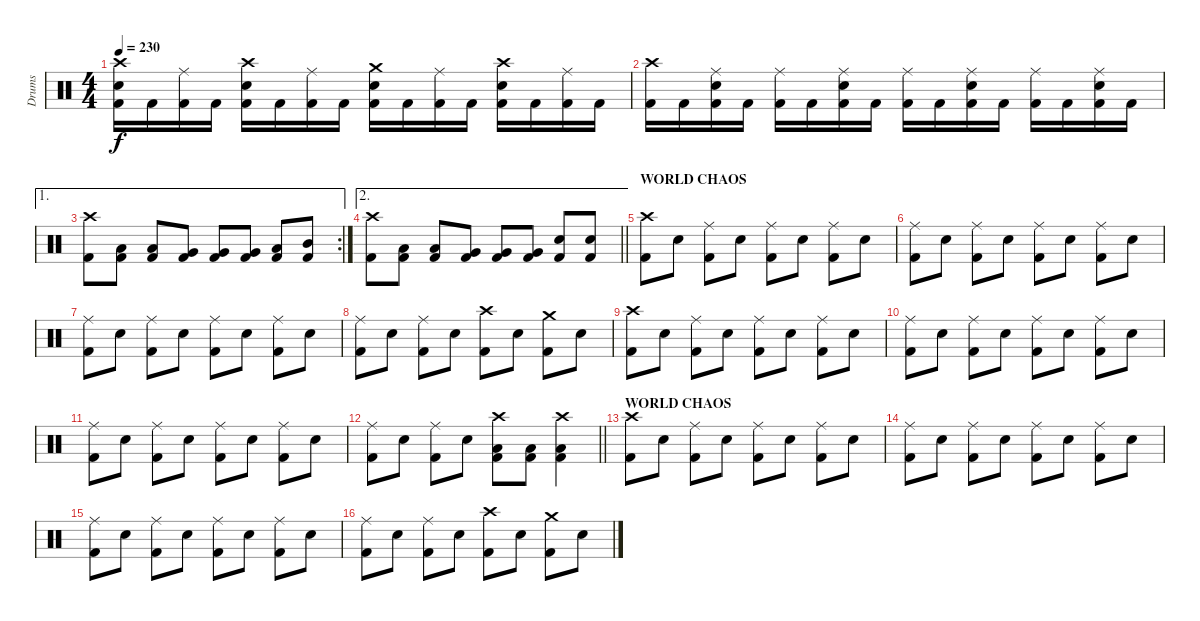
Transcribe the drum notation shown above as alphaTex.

\track ("Drums" "Drums") {instrument percussion}
\staff {score}
\articulation defaults
\ts (4 4)
\tempo 230
\clef neutral
\ks c
("Crash high (hit)" "Electric Snare (hit)" "Kick (hit) 2").16{dy f} "Kick (hit) 2".16 ("Ride (middle)" "Kick (hit) 2").16 "Kick (hit) 2".16 ("Crash high (hit)" "Electric Snare (hit)" "Kick (hit) 2").16 "Kick (hit) 2".16 ("Ride (middle)" "Kick (hit) 2").16 "Kick (hit) 2".16 ("Crash medium (hit)" "Electric Snare (hit)" "Kick (hit) 2").16 "Kick (hit) 2".16 ("Ride (middle)" "Kick (hit) 2").16 "Kick (hit) 2".16 ("Crash high (hit)" "Electric Snare (hit)" "Kick (hit) 2").16 "Kick (hit) 2".16 ("Ride (middle)" "Kick (hit) 2").16 "Kick (hit) 2".16 |
("Crash high (hit)" "Kick (hit) 2").16 "Kick (hit) 2".16 ("Ride (middle)" "Electric Snare (hit)" "Kick (hit) 2").16 "Kick (hit) 2".16 ("Ride (middle)" "Kick (hit) 2").16 "Kick (hit) 2".16 ("Ride (middle)" "Electric Snare (hit)" "Kick (hit) 2").16 "Kick (hit) 2".16 ("Ride (middle)" "Kick (hit) 2").16 "Kick (hit) 2".16 ("Ride (middle)" "Electric Snare (hit)" "Kick (hit) 2").16 "Kick (hit) 2".16 ("Ride (middle)" "Kick (hit) 2").16 "Kick (hit) 2".16 ("Ride (middle)" "Electric Snare (hit)" "Kick (hit) 2").16 "Kick (hit) 2".16 |
\ae 1
\rc 2
("Crash high (hit)" "Kick (hit) 2").8 ("Low Tom (hit)" "Kick (hit) 2").8 ("Low Tom (hit)" "Kick (hit) 2").8 ("Very Low Tom (hit)" "Kick (hit) 2").8 ("Very Low Tom (hit)" "Kick (hit) 2").8 ("Very Low Tom (hit)" "Kick (hit) 2").8 ("Low Tom (hit)" "Kick (hit) 2").8 ("Mid Tom (hit)" "Kick (hit) 2").8 |
\ae 2
\barLineRight lightlight
("Crash high (hit)" "Kick (hit) 2").8 ("Low Tom (hit)" "Kick (hit) 2").8 ("Low Tom (hit)" "Kick (hit) 2").8 ("Very Low Tom (hit)" "Kick (hit) 2").8 ("Very Low Tom (hit)" "Kick (hit) 2").8 ("Very Low Tom (hit)" "Kick (hit) 2").8 ("Electric Snare (hit)" "Kick (hit) 2").8 ("Electric Snare (hit)" "Kick (hit) 2").8 |
\section ("" "WORLD CHAOS")
("Crash high (hit)" "Kick (hit) 2").8 "Electric Snare (hit)".8 ("Ride (middle)" "Kick (hit) 2").8 "Electric Snare (hit)".8 ("Ride (middle)" "Kick (hit) 2").8 "Electric Snare (hit)".8 ("Ride (middle)" "Kick (hit) 2").8 "Electric Snare (hit)".8 |
("Ride (middle)" "Kick (hit) 2").8 "Electric Snare (hit)".8 ("Ride (middle)" "Kick (hit) 2").8 "Electric Snare (hit)".8 ("Ride (middle)" "Kick (hit) 2").8 "Electric Snare (hit)".8 ("Ride (middle)" "Kick (hit) 2").8 "Electric Snare (hit)".8 |
("Ride (middle)" "Kick (hit) 2").8 "Electric Snare (hit)".8 ("Ride (middle)" "Kick (hit) 2").8 "Electric Snare (hit)".8 ("Ride (middle)" "Kick (hit) 2").8 "Electric Snare (hit)".8 ("Ride (middle)" "Kick (hit) 2").8 "Electric Snare (hit)".8 |
("Ride (middle)" "Kick (hit) 2").8 "Electric Snare (hit)".8 ("Ride (middle)" "Kick (hit) 2").8 "Electric Snare (hit)".8 ("Crash high (hit)" "Kick (hit) 2").8 "Electric Snare (hit)".8 ("Crash medium (hit)" "Kick (hit) 2").8 "Electric Snare (hit)".8 |
("Crash high (hit)" "Kick (hit) 2").8 "Electric Snare (hit)".8 ("Ride (middle)" "Kick (hit) 2").8 "Electric Snare (hit)".8 ("Ride (middle)" "Kick (hit) 2").8 "Electric Snare (hit)".8 ("Ride (middle)" "Kick (hit) 2").8 "Electric Snare (hit)".8 |
("Ride (middle)" "Kick (hit) 2").8 "Electric Snare (hit)".8 ("Ride (middle)" "Kick (hit) 2").8 "Electric Snare (hit)".8 ("Ride (middle)" "Kick (hit) 2").8 "Electric Snare (hit)".8 ("Ride (middle)" "Kick (hit) 2").8 "Electric Snare (hit)".8 |
("Ride (middle)" "Kick (hit) 2").8 "Electric Snare (hit)".8 ("Ride (middle)" "Kick (hit) 2").8 "Electric Snare (hit)".8 ("Ride (middle)" "Kick (hit) 2").8 "Electric Snare (hit)".8 ("Ride (middle)" "Kick (hit) 2").8 "Electric Snare (hit)".8 |
\barLineRight lightlight
("Ride (middle)" "Kick (hit) 2").8 "Electric Snare (hit)".8 ("Ride (middle)" "Kick (hit) 2").8 "Electric Snare (hit)".8 ("Crash high (hit)" "Low Tom (hit)" "Kick (hit) 2").8 ("Low Tom (hit)" "Kick (hit) 2").8 ("Crash high (hit)" "Low Tom (hit)" "Kick (hit) 2").4 |
\section ("" "WORLD CHAOS")
("Crash high (hit)" "Kick (hit) 2").8 "Electric Snare (hit)".8 ("Ride (middle)" "Kick (hit) 2").8 "Electric Snare (hit)".8 ("Ride (middle)" "Kick (hit) 2").8 "Electric Snare (hit)".8 ("Ride (middle)" "Kick (hit) 2").8 "Electric Snare (hit)".8 |
("Ride (middle)" "Kick (hit) 2").8 "Electric Snare (hit)".8 ("Ride (middle)" "Kick (hit) 2").8 "Electric Snare (hit)".8 ("Ride (middle)" "Kick (hit) 2").8 "Electric Snare (hit)".8 ("Ride (middle)" "Kick (hit) 2").8 "Electric Snare (hit)".8 |
("Ride (middle)" "Kick (hit) 2").8 "Electric Snare (hit)".8 ("Ride (middle)" "Kick (hit) 2").8 "Electric Snare (hit)".8 ("Ride (middle)" "Kick (hit) 2").8 "Electric Snare (hit)".8 ("Ride (middle)" "Kick (hit) 2").8 "Electric Snare (hit)".8 |
("Ride (middle)" "Kick (hit) 2").8 "Electric Snare (hit)".8 ("Ride (middle)" "Kick (hit) 2").8 "Electric Snare (hit)".8 ("Crash high (hit)" "Kick (hit) 2").8 "Electric Snare (hit)".8 ("Crash medium (hit)" "Kick (hit) 2").8 "Electric Snare (hit)".8
